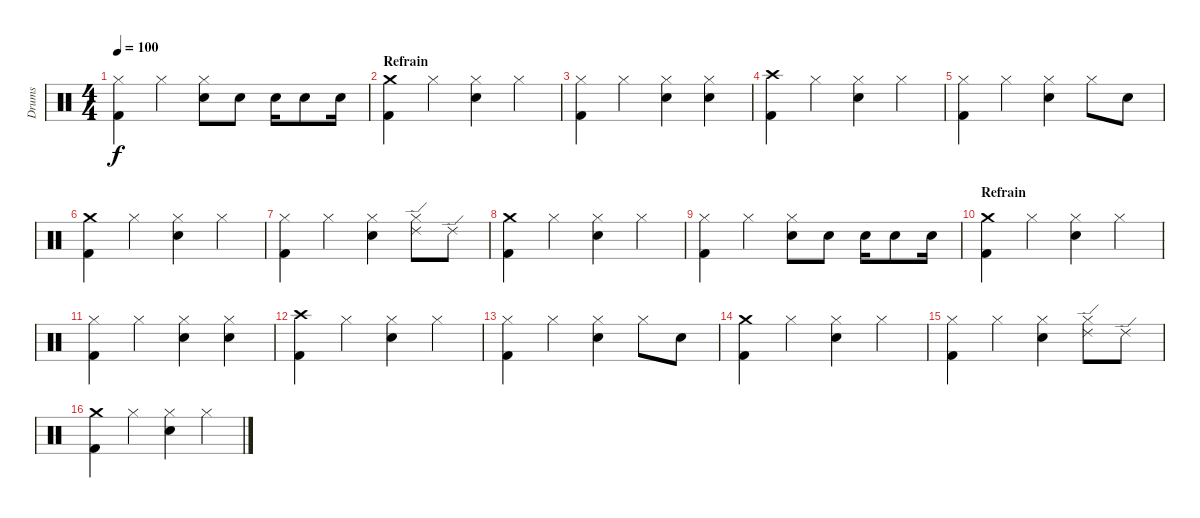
\track ("Drums" "Drums") {instrument percussion}
\staff {score}
\articulation defaults
\ts (4 4)
\tempo 100
\clef neutral
\ks c
("Hi-Hat (closed)" "Kick (hit) 2").4{dy f} "Hi-Hat (closed)".4 ("Hi-Hat (closed)" "Snare (hit) 2").8 "Snare (hit) 2".8 "Snare (hit) 2".16 "Snare (hit) 2".8 "Snare (hit) 2".16 |
\section ("" "Refrain")
("Crash medium (hit)" "Kick (hit) 2").4 "Hi-Hat (closed)".4 ("Hi-Hat (closed)" "Snare (hit) 2").4 "Hi-Hat (closed)".4 |
("Hi-Hat (closed)" "Kick (hit) 2").4 "Hi-Hat (closed)".4 ("Hi-Hat (closed)" "Snare (hit) 2").4 ("Hi-Hat (closed)" "Snare (hit) 2").4 |
("Crash high (hit)" "Kick (hit) 2").4 "Hi-Hat (closed)".4 ("Hi-Hat (closed)" "Snare (hit) 2").4 "Hi-Hat (closed)".4 |
("Hi-Hat (closed)" "Kick (hit) 2").4 "Hi-Hat (closed)".4 ("Hi-Hat (closed)" "Snare (hit) 2").4 "Hi-Hat (closed)".8 "Snare (hit) 2".8 |
("Crash medium (hit)" "Kick (hit) 2").4 "Hi-Hat (closed)".4 ("Hi-Hat (closed)" "Snare (hit) 2").4 "Hi-Hat (closed)".4 |
("Hi-Hat (closed)" "Kick (hit) 2").4 "Hi-Hat (closed)".4 ("Hi-Hat (closed)" "Snare (hit) 2").4 ("Hi-Hat (closed)" "Ride (edge) 2").8 "Ride (edge) 2".8 |
("Crash medium (hit)" "Kick (hit) 2").4 "Hi-Hat (closed)".4 ("Hi-Hat (closed)" "Snare (hit) 2").4 "Hi-Hat (closed)".4 |
("Hi-Hat (closed)" "Kick (hit) 2").4 "Hi-Hat (closed)".4 ("Hi-Hat (closed)" "Snare (hit) 2").8 "Snare (hit) 2".8 "Snare (hit) 2".16 "Snare (hit) 2".8 "Snare (hit) 2".16 |
\section ("" "Refrain")
("Crash medium (hit)" "Kick (hit) 2").4 "Hi-Hat (closed)".4 ("Hi-Hat (closed)" "Snare (hit) 2").4 "Hi-Hat (closed)".4 |
("Hi-Hat (closed)" "Kick (hit) 2").4 "Hi-Hat (closed)".4 ("Hi-Hat (closed)" "Snare (hit) 2").4 ("Hi-Hat (closed)" "Snare (hit) 2").4 |
("Crash high (hit)" "Kick (hit) 2").4 "Hi-Hat (closed)".4 ("Hi-Hat (closed)" "Snare (hit) 2").4 "Hi-Hat (closed)".4 |
("Hi-Hat (closed)" "Kick (hit) 2").4 "Hi-Hat (closed)".4 ("Hi-Hat (closed)" "Snare (hit) 2").4 "Hi-Hat (closed)".8 "Snare (hit) 2".8 |
("Crash medium (hit)" "Kick (hit) 2").4 "Hi-Hat (closed)".4 ("Hi-Hat (closed)" "Snare (hit) 2").4 "Hi-Hat (closed)".4 |
("Hi-Hat (closed)" "Kick (hit) 2").4 "Hi-Hat (closed)".4 ("Hi-Hat (closed)" "Snare (hit) 2").4 ("Hi-Hat (closed)" "Ride (edge) 2").8 "Ride (edge) 2".8 |
("Crash medium (hit)" "Kick (hit) 2").4 "Hi-Hat (closed)".4 ("Hi-Hat (closed)" "Snare (hit) 2").4 "Hi-Hat (closed)".4
